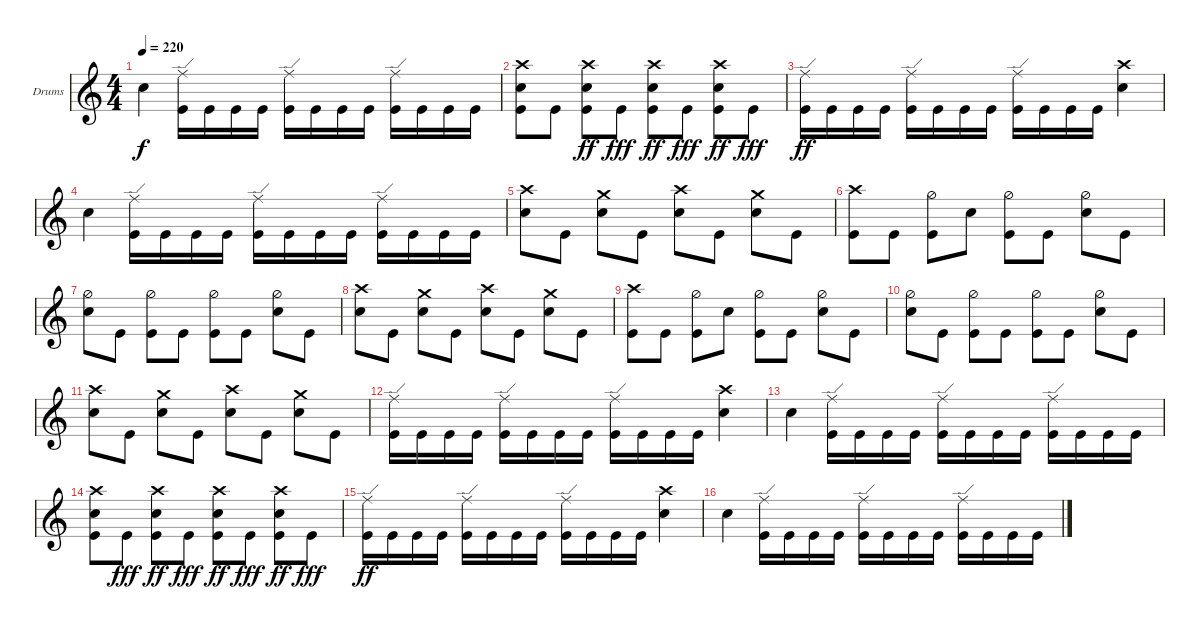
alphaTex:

\defaultSystemsLayout 4
\bracketExtendMode groupsimilarinstruments
\firstSystemTrackNameOrientation horizontal
\otherSystemsTrackNameOrientation horizontal
\track ("Drumkit" "Drums") {instrument percussion}
\staff {score}
\articulation defaults
\ts (4 4)
\tempo 220
\clef g2
\ks c "Snare (hit) 2".4{dy f}
("Kick (hit)" "Ride (edge)").16 "Kick (hit)".16 "Kick (hit)".16 "Kick (hit)".16 ("Kick (hit)" "Ride (edge)").16 "Kick (hit)".16 "Kick (hit)".16 "Kick (hit)".16 ("Kick (hit)" "Ride (edge)").16 "Kick (hit)".16 "Kick (hit)".16 "Kick (hit)".16 |
("Kick (hit)" "Crash high (hit)" "Snare (hit) 2").8 "Kick (hit)".8 ("Crash high (hit)" "Kick (hit)" "Snare (hit) 2").8{dy ff} "Kick (hit)".8{dy fff} ("Crash high (hit)" "Kick (hit)" "Snare (hit) 2").8{dy ff} "Kick (hit)".8{dy fff} ("Crash high (hit)" "Kick (hit)" "Snare (hit) 2").8{dy ff} "Kick (hit)".8{dy fff} |
("Kick (hit)" "Ride (edge)").16{dy ff} "Kick (hit)".16 "Kick (hit)".16 "Kick (hit)".16 ("Kick (hit)" "Ride (edge)").16 "Kick (hit)".16 "Kick (hit)".16 "Kick (hit)".16 ("Kick (hit)" "Ride (edge)").16 "Kick (hit)".16 "Kick (hit)".16 "Kick (hit)".16 ("Snare (hit) 2" "Crash high (hit)").4 |
"Snare (hit) 2".4 ("Kick (hit)" "Ride (edge)").16 "Kick (hit)".16 "Kick (hit)".16 "Kick (hit)".16 ("Kick (hit)" "Ride (edge)").16 "Kick (hit)".16 "Kick (hit)".16 "Kick (hit)".16 ("Kick (hit)" "Ride (edge)").16 "Kick (hit)".16 "Kick (hit)".16 "Kick (hit)".16 |
("Snare (hit) 2" "Crash high (hit)").8 "Kick (hit)".8 ("Snare (hit) 2" "Crash medium (hit)").8 "Kick (hit)".8 ("Snare (hit) 2" "Crash high (hit)").8 "Kick (hit)".8 ("Crash medium (hit)" "Snare (hit) 2").8 "Kick (hit)".8 |
("Kick (hit)" "Crash high (hit)").8 "Kick (hit)".8 ("Kick (hit)" "Hi-Hat (half)").8 "Snare (hit) 2".8 ("Kick (hit)" "Hi-Hat (half)").8 "Kick (hit)".8 ("Snare (hit) 2" "Hi-Hat (half)").8 "Kick (hit)".8 |
("Snare (hit) 2" "Hi-Hat (half)").8 "Kick (hit)".8 ("Kick (hit)" "Hi-Hat (half)").8 "Kick (hit)".8 ("Kick (hit)" "Hi-Hat (half)").8 "Kick (hit)".8 ("Snare (hit) 2" "Hi-Hat (half)").8 "Kick (hit)".8 |
("Snare (hit) 2" "Crash high (hit)").8 "Kick (hit)".8 ("Snare (hit) 2" "Crash medium (hit)").8 "Kick (hit)".8 ("Snare (hit) 2" "Crash high (hit)").8 "Kick (hit)".8 ("Crash medium (hit)" "Snare (hit) 2").8 "Kick (hit)".8 |
("Kick (hit)" "Crash high (hit)").8 "Kick (hit)".8 ("Kick (hit)" "Hi-Hat (half)").8 "Snare (hit) 2".8 ("Kick (hit)" "Hi-Hat (half)").8 "Kick (hit)".8 ("Snare (hit) 2" "Hi-Hat (half)").8 "Kick (hit)".8 |
("Snare (hit) 2" "Hi-Hat (half)").8 "Kick (hit)".8 ("Kick (hit)" "Hi-Hat (half)").8 "Kick (hit)".8 ("Kick (hit)" "Hi-Hat (half)").8 "Kick (hit)".8 ("Snare (hit) 2" "Hi-Hat (half)").8 "Kick (hit)".8 |
("Snare (hit) 2" "Crash high (hit)").8 "Kick (hit)".8 ("Snare (hit) 2" "Crash medium (hit)").8 "Kick (hit)".8 ("Snare (hit) 2" "Crash high (hit)").8 "Kick (hit)".8 ("Crash medium (hit)" "Snare (hit) 2").8 "Kick (hit)".8 |
("Kick (hit)" "Ride (edge)").16 "Kick (hit)".16 "Kick (hit)".16 "Kick (hit)".16 ("Kick (hit)" "Ride (edge)").16 "Kick (hit)".16 "Kick (hit)".16 "Kick (hit)".16 ("Kick (hit)" "Ride (edge)").16 "Kick (hit)".16 "Kick (hit)".16 "Kick (hit)".16 ("Snare (hit) 2" "Crash high (hit)").4 |
"Snare (hit) 2".4 ("Kick (hit)" "Ride (edge)").16 "Kick (hit)".16 "Kick (hit)".16 "Kick (hit)".16 ("Kick (hit)" "Ride (edge)").16 "Kick (hit)".16 "Kick (hit)".16 "Kick (hit)".16 ("Kick (hit)" "Ride (edge)").16 "Kick (hit)".16 "Kick (hit)".16 "Kick (hit)".16 |
("Kick (hit)" "Crash high (hit)" "Snare (hit) 2").8 "Kick (hit)".8{dy fff} ("Crash high (hit)" "Kick (hit)" "Snare (hit) 2").8{dy ff} "Kick (hit)".8{dy fff} ("Crash high (hit)" "Kick (hit)" "Snare (hit) 2").8{dy ff} "Kick (hit)".8{dy fff} ("Crash high (hit)" "Kick (hit)" "Snare (hit) 2").8{dy ff} "Kick (hit)".8{dy fff} |
("Kick (hit)" "Ride (edge)").16{dy ff} "Kick (hit)".16 "Kick (hit)".16 "Kick (hit)".16 ("Kick (hit)" "Ride (edge)").16 "Kick (hit)".16 "Kick (hit)".16 "Kick (hit)".16 ("Kick (hit)" "Ride (edge)").16 "Kick (hit)".16 "Kick (hit)".16 "Kick (hit)".16 ("Snare (hit) 2" "Crash high (hit)").4 |
"Snare (hit) 2".4 ("Kick (hit)" "Ride (edge)").16 "Kick (hit)".16 "Kick (hit)".16 "Kick (hit)".16 ("Kick (hit)" "Ride (edge)").16 "Kick (hit)".16 "Kick (hit)".16 "Kick (hit)".16 ("Kick (hit)" "Ride (edge)").16 "Kick (hit)".16 "Kick (hit)".16 "Kick (hit)".16
